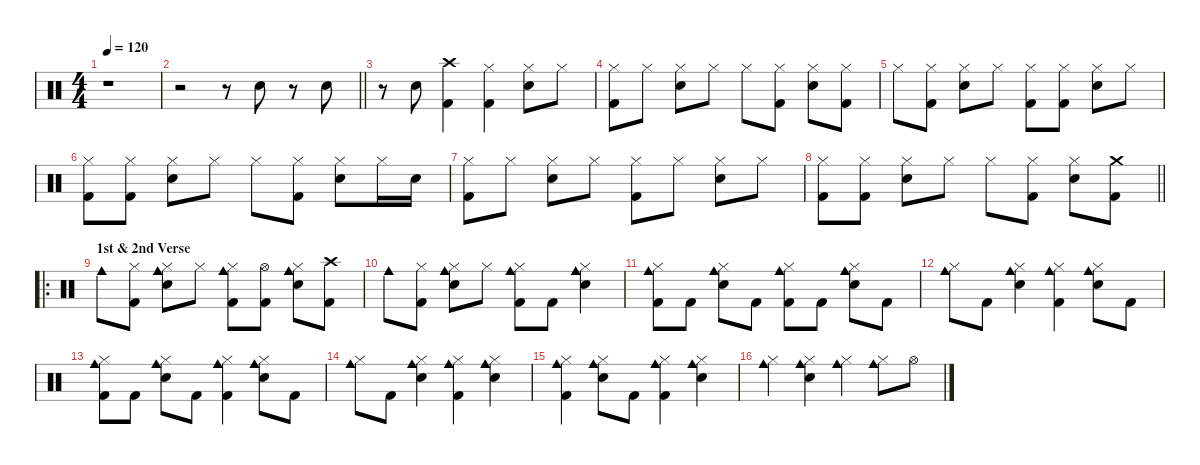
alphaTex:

\defaultSystemsLayout 4
\hideDynamics
\bracketExtendMode nobrackets
\singleTrackTrackNamePolicy hidden
\multiTrackTrackNamePolicy hidden
\otherSystemsTrackNameOrientation horizontal
\track ("Percussions" "drm.") {instrument percussion}
\staff {score}
\articulation defaults
\ts (4 4)
\tempo 120
\clef neutral
\ks c
r.1{dy f beam Down} |
\barLineRight lightlight
r.2{beam Down} r.8{beam Down} "Snare (hit) 2".8{beam Down} r.8{beam Down} "Snare (hit) 2".8{beam Down} |
r.8{beam Down} "Snare (hit) 2".8{beam Down} ("Crash high (hit)" "Kick (hit) 2").4{beam Down} ("Hi-Hat (closed)" "Kick (hit) 2").4{beam Down} ("Hi-Hat (closed)" "Snare (hit) 2").8{beam Down} "Hi-Hat (closed)".8{beam Down} |
("Hi-Hat (closed)" "Kick (hit) 2").8{beam Down} "Hi-Hat (closed)".8{beam Down} ("Hi-Hat (closed)" "Snare (hit) 2").8{beam Down} "Hi-Hat (closed)".8{beam Down} "Hi-Hat (closed)".8{beam Down} ("Hi-Hat (closed)" "Kick (hit) 2").8{beam Down} ("Hi-Hat (closed)" "Snare (hit) 2").8{beam Down} ("Hi-Hat (closed)" "Kick (hit) 2").8{beam Down} |
"Hi-Hat (closed)".8{beam Down} ("Hi-Hat (closed)" "Kick (hit) 2").8{beam Down} ("Hi-Hat (closed)" "Snare (hit) 2").8{beam Down} "Hi-Hat (closed)".8{beam Down} ("Hi-Hat (closed)" "Kick (hit) 2").8{beam Down} ("Hi-Hat (closed)" "Kick (hit) 2").8{beam Down} ("Hi-Hat (closed)" "Snare (hit) 2").8{beam Down} "Hi-Hat (closed)".8{beam Down} |
("Hi-Hat (closed)" "Kick (hit) 2").8{beam Down} ("Hi-Hat (closed)" "Kick (hit) 2").8{beam Down} ("Hi-Hat (closed)" "Snare (hit) 2").8{beam Down} "Hi-Hat (closed)".8{beam Down} "Hi-Hat (closed)".8{beam Down} ("Hi-Hat (closed)" "Kick (hit) 2").8{beam Down} ("Hi-Hat (closed)" "Snare (hit) 2").8{beam Down} "Hi-Hat (closed)".16{beam Down} "Snare (hit) 2".16{beam Down} |
("Hi-Hat (closed)" "Kick (hit) 2").8{beam Down} "Hi-Hat (closed)".8{beam Down} ("Hi-Hat (closed)" "Snare (hit) 2").8{beam Down} "Hi-Hat (closed)".8{beam Down} ("Hi-Hat (closed)" "Kick (hit) 2").8{beam Down} "Hi-Hat (closed)".8{beam Down} ("Hi-Hat (closed)" "Snare (hit) 2").8{beam Down} "Hi-Hat (closed)".8{beam Down} |
\barLineRight lightlight
("Hi-Hat (closed)" "Kick (hit) 2").8{beam Down} ("Hi-Hat (closed)" "Kick (hit) 2").8{beam Down} ("Hi-Hat (closed)" "Snare (hit) 2").8{beam Down} "Hi-Hat (closed)".8{beam Down} "Hi-Hat (closed)".8{beam Down} ("Hi-Hat (closed)" "Kick (hit) 2").8{beam Down} ("Hi-Hat (closed)" "Snare (hit) 2").8{beam Down} ("Crash medium (hit)" "Kick (hit) 2").8{beam Down} |
\ro
\section ("" "1st & 2nd Verse")
"Cowbell medium (hit)".8{beam Down} ("Hi-Hat (closed)" "Kick (hit) 2").8{beam Down} ("Cowbell medium (hit)" "Hi-Hat (closed)" "Snare (hit) 2").8{beam Down} "Hi-Hat (closed)".8{beam Down} ("Cowbell medium (hit)" "Hi-Hat (closed)" "Kick (hit) 2").8{beam Down} ("Hi-Hat (open)" "Kick (hit) 2").8{beam Down} ("Cowbell medium (hit)" "Hi-Hat (closed)" "Snare (hit) 2").8{beam Down} ("Crash high (hit)" "Kick (hit) 2").8{beam Down} |
"Cowbell medium (hit)".8{beam Down} ("Hi-Hat (closed)" "Kick (hit) 2").8{beam Down} ("Cowbell medium (hit)" "Hi-Hat (closed)" "Snare (hit) 2").8{beam Down} "Hi-Hat (closed)".8{beam Down} ("Cowbell medium (hit)" "Hi-Hat (closed)" "Kick (hit) 2").8{beam Down} "Kick (hit) 2".8{beam Down} ("Cowbell medium (hit)" "Hi-Hat (closed)" "Snare (hit) 2").4{beam Down} |
("Cowbell medium (hit)" "Hi-Hat (closed)" "Kick (hit) 2").8{beam Down} "Kick (hit) 2".8{beam Down} ("Cowbell medium (hit)" "Hi-Hat (closed)" "Snare (hit) 2").8{beam Down} "Kick (hit) 2".8{beam Down} ("Cowbell medium (hit)" "Hi-Hat (closed)" "Kick (hit) 2").8{beam Down} "Kick (hit) 2".8{beam Down} ("Cowbell medium (hit)" "Hi-Hat (closed)" "Snare (hit) 2").8{beam Down} "Kick (hit) 2".8{beam Down} |
("Cowbell medium (hit)" "Hi-Hat (closed)").8{beam Down} "Kick (hit) 2".8{beam Down} ("Cowbell medium (hit)" "Hi-Hat (closed)" "Snare (hit) 2").4{beam Down} ("Cowbell medium (hit)" "Hi-Hat (closed)" "Kick (hit) 2").4{beam Down} ("Cowbell medium (hit)" "Hi-Hat (closed)" "Snare (hit) 2").8{beam Down} "Kick (hit) 2".8{beam Down} |
("Cowbell medium (hit)" "Hi-Hat (closed)" "Kick (hit) 2").8{beam Down} "Kick (hit) 2".8{beam Down} ("Cowbell medium (hit)" "Hi-Hat (closed)" "Snare (hit) 2").8{beam Down} "Kick (hit) 2".8{beam Down} ("Cowbell medium (hit)" "Hi-Hat (closed)" "Kick (hit) 2").4{beam Down} ("Cowbell medium (hit)" "Hi-Hat (closed)" "Snare (hit) 2").8{beam Down} "Kick (hit) 2".8{beam Down} |
("Cowbell medium (hit)" "Hi-Hat (closed)").8{beam Down} "Kick (hit) 2".8{beam Down} ("Cowbell medium (hit)" "Hi-Hat (closed)" "Snare (hit) 2").4{beam Down} ("Cowbell medium (hit)" "Hi-Hat (closed)" "Kick (hit) 2").4{beam Down} ("Cowbell medium (hit)" "Hi-Hat (closed)" "Snare (hit) 2").4{beam Down} |
("Cowbell medium (hit)" "Hi-Hat (closed)" "Kick (hit) 2").4{beam Down} ("Cowbell medium (hit)" "Hi-Hat (closed)" "Snare (hit) 2").8{beam Down} "Kick (hit) 2".8{beam Down} ("Cowbell medium (hit)" "Hi-Hat (closed)" "Kick (hit) 2").4{beam Down} ("Cowbell medium (hit)" "Hi-Hat (closed)" "Snare (hit) 2").4{beam Down} |
("Cowbell medium (hit)" "Hi-Hat (closed)").4{beam Down} ("Cowbell medium (hit)" "Hi-Hat (closed)" "Snare (hit) 2").4{beam Down} ("Cowbell medium (hit)" "Hi-Hat (closed)").4{beam Down} ("Cowbell medium (hit)" "Hi-Hat (closed)").8{beam Down} "Hi-Hat (open)".8{beam Down}
